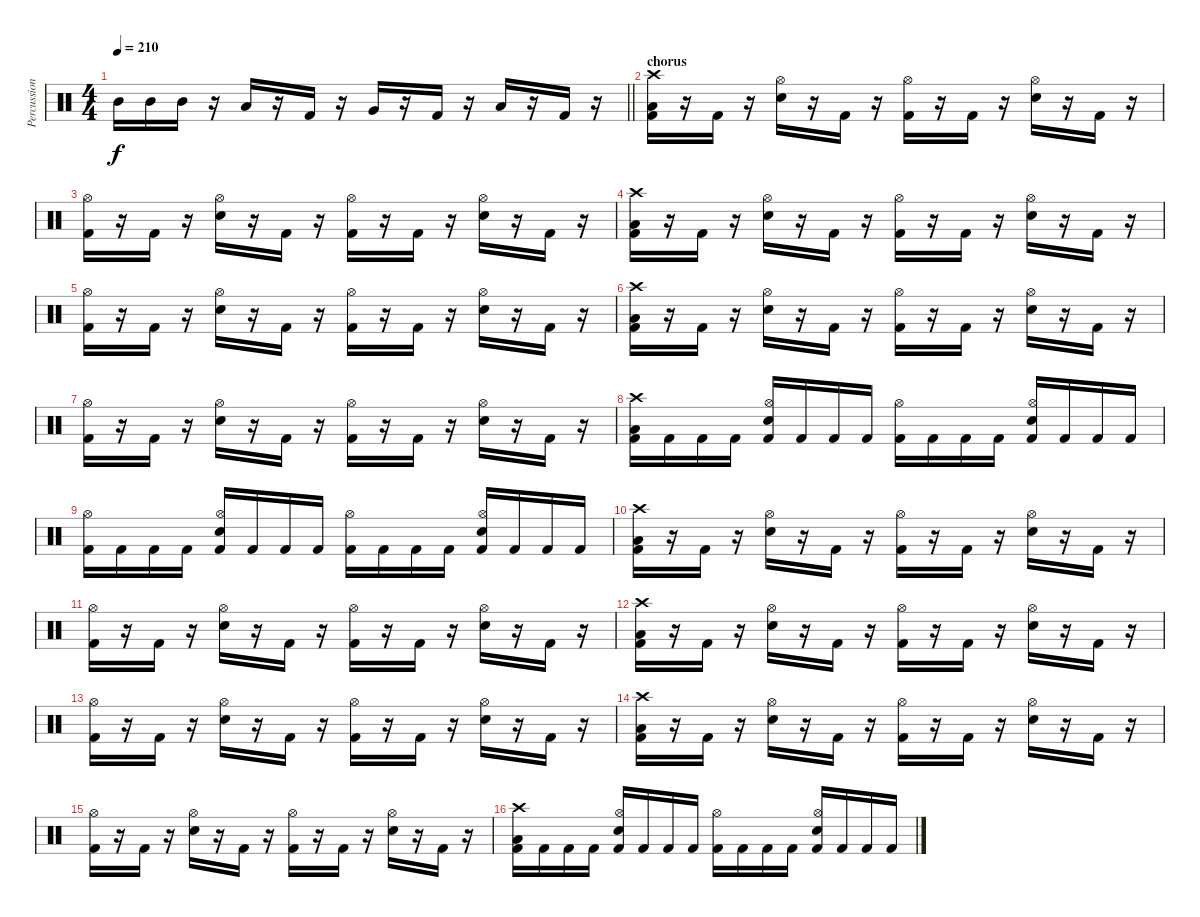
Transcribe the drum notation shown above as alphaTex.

\track ("Percussion" "Percussion") {instrument percussion}
\staff {score}
\articulation defaults
\ts (4 4)
\tempo 210
\clef neutral
\barLineRight lightlight
\ks c "Mid Tom (hit)".16{dy f} "Mid Tom (hit)".16 "Mid Tom (hit)".16
r.16 "Low Tom (hit)".16 r.16 "Kick (hit) 2".16 r.16 "Very Low Tom (hit)".16 r.16 "Kick (hit) 2".16 r.16 "Low Floor Tom (hit)".16 r.16 "Kick (hit) 2".16 r.16 |
\section ("" "chorus")
("Crash high (hit)" "Low Floor Tom (hit)" "Kick (hit) 2").16 r.16 "Kick (hit) 2".16 r.16 ("Hi-Hat (open)" "Snare (hit) 2").16 r.16 "Kick (hit) 2".16 r.16 ("Hi-Hat (open)" "Kick (hit) 2").16 r.16 "Kick (hit) 2".16 r.16 ("Hi-Hat (open)" "Snare (hit) 2").16 r.16 "Kick (hit) 2".16 r.16 |
("Hi-Hat (open)" "Kick (hit) 2").16 r.16 "Kick (hit) 2".16 r.16 ("Hi-Hat (open)" "Snare (hit) 2").16 r.16 "Kick (hit) 2".16 r.16 ("Hi-Hat (open)" "Kick (hit) 2").16 r.16 "Kick (hit) 2".16 r.16 ("Hi-Hat (open)" "Snare (hit) 2").16 r.16 "Kick (hit) 2".16 r.16 |
("Crash high (hit)" "Low Floor Tom (hit)" "Kick (hit) 2").16 r.16 "Kick (hit) 2".16 r.16 ("Hi-Hat (open)" "Snare (hit) 2").16 r.16 "Kick (hit) 2".16 r.16 ("Hi-Hat (open)" "Kick (hit) 2").16 r.16 "Kick (hit) 2".16 r.16 ("Hi-Hat (open)" "Snare (hit) 2").16 r.16 "Kick (hit) 2".16 r.16 |
("Hi-Hat (open)" "Kick (hit) 2").16 r.16 "Kick (hit) 2".16 r.16 ("Hi-Hat (open)" "Snare (hit) 2").16 r.16 "Kick (hit) 2".16 r.16 ("Hi-Hat (open)" "Kick (hit) 2").16 r.16 "Kick (hit) 2".16 r.16 ("Hi-Hat (open)" "Snare (hit) 2").16 r.16 "Kick (hit) 2".16 r.16 |
("Crash high (hit)" "Low Floor Tom (hit)" "Kick (hit) 2").16 r.16 "Kick (hit) 2".16 r.16 ("Hi-Hat (open)" "Snare (hit) 2").16 r.16 "Kick (hit) 2".16 r.16 ("Hi-Hat (open)" "Kick (hit) 2").16 r.16 "Kick (hit) 2".16 r.16 ("Hi-Hat (open)" "Snare (hit) 2").16 r.16 "Kick (hit) 2".16 r.16 |
("Hi-Hat (open)" "Kick (hit) 2").16 r.16 "Kick (hit) 2".16 r.16 ("Hi-Hat (open)" "Snare (hit) 2").16 r.16 "Kick (hit) 2".16 r.16 ("Hi-Hat (open)" "Kick (hit) 2").16 r.16 "Kick (hit) 2".16 r.16 ("Hi-Hat (open)" "Snare (hit) 2").16 r.16 "Kick (hit) 2".16 r.16 |
("Crash high (hit)" "Low Floor Tom (hit)" "Kick (hit) 2").16 "Kick (hit) 2".16 "Kick (hit) 2".16 "Kick (hit) 2".16 ("Hi-Hat (open)" "Snare (hit) 2" "Kick (hit) 2").16 "Kick (hit) 2".16 "Kick (hit) 2".16 "Kick (hit) 2".16 ("Hi-Hat (open)" "Kick (hit) 2").16 "Kick (hit) 2".16 "Kick (hit) 2".16 "Kick (hit) 2".16 ("Hi-Hat (open)" "Snare (hit) 2" "Kick (hit) 2").16 "Kick (hit) 2".16 "Kick (hit) 2".16 "Kick (hit) 2".16 |
("Hi-Hat (open)" "Kick (hit) 2").16 "Kick (hit) 2".16 "Kick (hit) 2".16 "Kick (hit) 2".16 ("Hi-Hat (open)" "Snare (hit) 2" "Kick (hit) 2").16 "Kick (hit) 2".16 "Kick (hit) 2".16 "Kick (hit) 2".16 ("Hi-Hat (open)" "Kick (hit) 2").16 "Kick (hit) 2".16 "Kick (hit) 2".16 "Kick (hit) 2".16 ("Hi-Hat (open)" "Snare (hit) 2" "Kick (hit) 2").16 "Kick (hit) 2".16 "Kick (hit) 2".16 "Kick (hit) 2".16 |
("Crash high (hit)" "Low Floor Tom (hit)" "Kick (hit) 2").16 r.16 "Kick (hit) 2".16 r.16 ("Hi-Hat (open)" "Snare (hit) 2").16 r.16 "Kick (hit) 2".16 r.16 ("Hi-Hat (open)" "Kick (hit) 2").16 r.16 "Kick (hit) 2".16 r.16 ("Hi-Hat (open)" "Snare (hit) 2").16 r.16 "Kick (hit) 2".16 r.16 |
("Hi-Hat (open)" "Kick (hit) 2").16 r.16 "Kick (hit) 2".16 r.16 ("Hi-Hat (open)" "Snare (hit) 2").16 r.16 "Kick (hit) 2".16 r.16 ("Hi-Hat (open)" "Kick (hit) 2").16 r.16 "Kick (hit) 2".16 r.16 ("Hi-Hat (open)" "Snare (hit) 2").16 r.16 "Kick (hit) 2".16 r.16 |
("Crash high (hit)" "Low Floor Tom (hit)" "Kick (hit) 2").16 r.16 "Kick (hit) 2".16 r.16 ("Hi-Hat (open)" "Snare (hit) 2").16 r.16 "Kick (hit) 2".16 r.16 ("Hi-Hat (open)" "Kick (hit) 2").16 r.16 "Kick (hit) 2".16 r.16 ("Hi-Hat (open)" "Snare (hit) 2").16 r.16 "Kick (hit) 2".16 r.16 |
("Hi-Hat (open)" "Kick (hit) 2").16 r.16 "Kick (hit) 2".16 r.16 ("Hi-Hat (open)" "Snare (hit) 2").16 r.16 "Kick (hit) 2".16 r.16 ("Hi-Hat (open)" "Kick (hit) 2").16 r.16 "Kick (hit) 2".16 r.16 ("Hi-Hat (open)" "Snare (hit) 2").16 r.16 "Kick (hit) 2".16 r.16 |
("Crash high (hit)" "Low Floor Tom (hit)" "Kick (hit) 2").16 r.16 "Kick (hit) 2".16 r.16 ("Hi-Hat (open)" "Snare (hit) 2").16 r.16 "Kick (hit) 2".16 r.16 ("Hi-Hat (open)" "Kick (hit) 2").16 r.16 "Kick (hit) 2".16 r.16 ("Hi-Hat (open)" "Snare (hit) 2").16 r.16 "Kick (hit) 2".16 r.16 |
("Hi-Hat (open)" "Kick (hit) 2").16 r.16 "Kick (hit) 2".16 r.16 ("Hi-Hat (open)" "Snare (hit) 2").16 r.16 "Kick (hit) 2".16 r.16 ("Hi-Hat (open)" "Kick (hit) 2").16 r.16 "Kick (hit) 2".16 r.16 ("Hi-Hat (open)" "Snare (hit) 2").16 r.16 "Kick (hit) 2".16 r.16 |
("Crash high (hit)" "Low Floor Tom (hit)" "Kick (hit) 2").16 "Kick (hit) 2".16 "Kick (hit) 2".16 "Kick (hit) 2".16 ("Hi-Hat (open)" "Snare (hit) 2" "Kick (hit) 2").16 "Kick (hit) 2".16 "Kick (hit) 2".16 "Kick (hit) 2".16 ("Hi-Hat (open)" "Kick (hit) 2").16 "Kick (hit) 2".16 "Kick (hit) 2".16 "Kick (hit) 2".16 ("Hi-Hat (open)" "Snare (hit) 2" "Kick (hit) 2").16 "Kick (hit) 2".16 "Kick (hit) 2".16 "Kick (hit) 2".16
